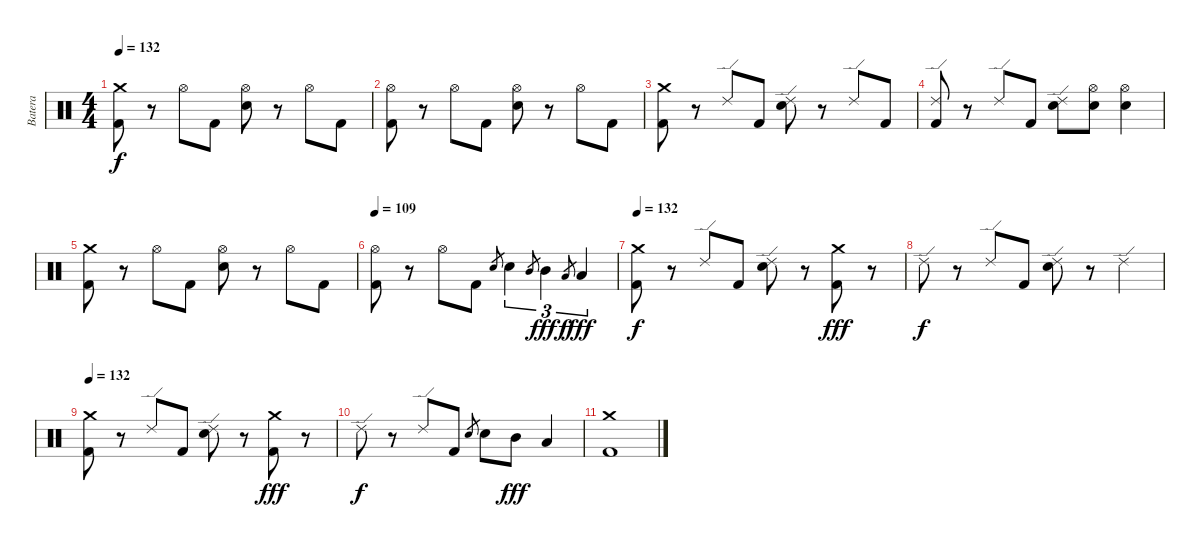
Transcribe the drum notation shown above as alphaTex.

\track ("Batera" "Batera") {instrument percussion}
\staff {score}
\articulation defaults
\ts (4 4)
\tempo 132
\clef neutral
\ks c
("Crash medium (hit)" "Kick (hit) 2").8{dy f} r.8 "Hi-Hat (open)".8 "Kick (hit) 2".8 ("Hi-Hat (open)" "Electric Snare (hit)").8 r.8 "Hi-Hat (open)".8 "Kick (hit) 2".8 |
("Hi-Hat (open)" "Kick (hit) 2").8 r.8 "Hi-Hat (open)".8 "Kick (hit) 2".8 ("Hi-Hat (open)" "Electric Snare (hit)").8 r.8 "Hi-Hat (open)".8 "Kick (hit) 2".8 |
("Crash medium (hit)" "Kick (hit) 2").8 r.8 "Ride (edge) 2".8 "Kick (hit) 2".8 ("Ride (edge) 2" "Electric Snare (hit)").8 r.8 "Ride (edge) 2".8 "Kick (hit) 2".8 |
("Ride (edge) 2" "Kick (hit) 2").8 r.8 "Ride (edge) 2".8 "Kick (hit) 2".8 ("Ride (edge) 2" "Electric Snare (hit)").8 ("Hi-Hat (open)" "Electric Snare (hit)").8 ("Hi-Hat (open)" "Electric Snare (hit)").4 |
("Crash medium (hit)" "Kick (hit) 2").8 r.8 "Hi-Hat (open)".8 "Kick (hit) 2".8 ("Hi-Hat (open)" "Electric Snare (hit)").8 r.8 "Hi-Hat (open)".8 "Kick (hit) 2".8 |
\tempo 109
("Hi-Hat (open)" "Kick (hit) 2").8 r.8 "Hi-Hat (open)".8 "Kick (hit) 2".8 "Electric Snare (hit)".8{gr} "Electric Snare (hit)".4{tu (3 2)} "Mid Tom (hit)".8{gr} "Mid Tom (hit)".4{tu (3 2) dy fff} "Low Tom (hit)".8{gr dy f} "Low Tom (hit)".4{tu (3 2) dy fff} |
\tempo 132
("Crash medium (hit)" "Kick (hit) 2").8{dy f} r.8 "Ride (edge) 2".8 "Kick (hit) 2".8 ("Ride (edge) 2" "Electric Snare (hit)").8 r.8 ("Crash medium (hit)" "Kick (hit) 2").8{dy fff} r.8 |
"Ride (edge) 2".8{dy f} r.8 "Ride (edge) 2".8 "Kick (hit) 2".8 ("Ride (edge) 2" "Electric Snare (hit)").8 r.8 "Ride (edge) 2".4 |
\tempo 132
("Crash medium (hit)" "Kick (hit) 2").8 r.8 "Ride (edge) 2".8 "Kick (hit) 2".8 ("Ride (edge) 2" "Electric Snare (hit)").8 r.8 ("Crash medium (hit)" "Kick (hit) 2").8{dy fff} r.8 |
"Ride (edge) 2".8{dy f} r.8 "Ride (edge) 2".8 "Kick (hit) 2".8 "Electric Snare (hit)".8{gr} "Electric Snare (hit)".8 "Mid Tom (hit)".8{dy fff} "Low Tom (hit)".4 |
("Crash medium (hit)" "Kick (hit) 2").1
